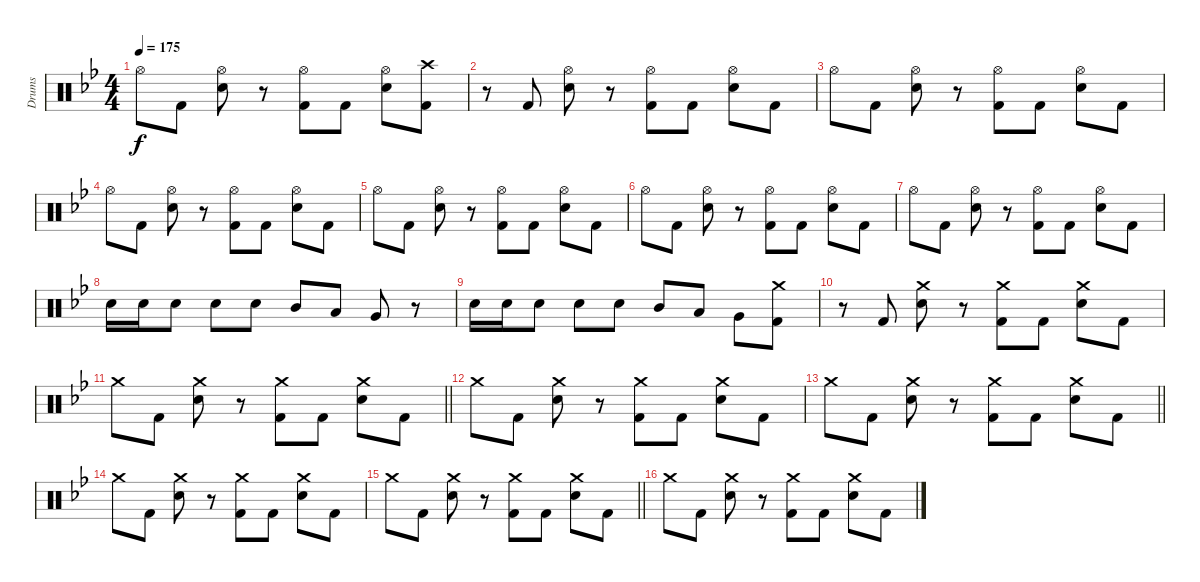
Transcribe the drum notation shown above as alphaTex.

\track ("Drums" "Drums") {instrument percussion}
\staff {score}
\articulation defaults
\ts (4 4)
\tempo 175
\clef neutral
\ks bb "Hi-Hat (open)".8{dy f} "Kick (hit) 2".8
("Hi-Hat (open)" "Electric Snare (hit)").8 r.8 ("Hi-Hat (open)" "Kick (hit) 2").8 "Kick (hit) 2".8 ("Hi-Hat (open)" "Electric Snare (hit)").8 ("Crash high (hit)" "Kick (hit) 2").8 |
r.8 "Kick (hit) 2".8 ("Hi-Hat (open)" "Electric Snare (hit)").8 r.8 ("Hi-Hat (open)" "Kick (hit) 2").8 "Kick (hit) 2".8 ("Hi-Hat (open)" "Electric Snare (hit)").8 "Kick (hit) 2".8 |
"Hi-Hat (open)".8 "Kick (hit) 2".8 ("Hi-Hat (open)" "Electric Snare (hit)").8 r.8 ("Hi-Hat (open)" "Kick (hit) 2").8 "Kick (hit) 2".8 ("Hi-Hat (open)" "Electric Snare (hit)").8 "Kick (hit) 2".8 |
"Hi-Hat (open)".8 "Kick (hit) 2".8 ("Hi-Hat (open)" "Electric Snare (hit)").8 r.8 ("Hi-Hat (open)" "Kick (hit) 2").8 "Kick (hit) 2".8 ("Hi-Hat (open)" "Electric Snare (hit)").8 "Kick (hit) 2".8 |
"Hi-Hat (open)".8 "Kick (hit) 2".8 ("Hi-Hat (open)" "Electric Snare (hit)").8 r.8 ("Hi-Hat (open)" "Kick (hit) 2").8 "Kick (hit) 2".8 ("Hi-Hat (open)" "Electric Snare (hit)").8 "Kick (hit) 2".8 |
"Hi-Hat (open)".8 "Kick (hit) 2".8 ("Hi-Hat (open)" "Electric Snare (hit)").8 r.8 ("Hi-Hat (open)" "Kick (hit) 2").8 "Kick (hit) 2".8 ("Hi-Hat (open)" "Electric Snare (hit)").8 "Kick (hit) 2".8 |
"Hi-Hat (open)".8 "Kick (hit) 2".8 ("Hi-Hat (open)" "Electric Snare (hit)").8 r.8 ("Hi-Hat (open)" "Kick (hit) 2").8 "Kick (hit) 2".8 ("Hi-Hat (open)" "Electric Snare (hit)").8 "Kick (hit) 2".8 |
"Electric Snare (hit)".16 "Electric Snare (hit)".16 "Electric Snare (hit)".8 "Electric Snare (hit)".8 "Electric Snare (hit)".8 "Mid Tom (hit)".8 "Low Tom (hit)".8 "Very Low Tom (hit)".8 r.8 |
"Electric Snare (hit)".16 "Electric Snare (hit)".16 "Electric Snare (hit)".8 "Electric Snare (hit)".8 "Electric Snare (hit)".8 "Mid Tom (hit)".8 "Low Tom (hit)".8 "Very Low Tom (hit)".8 ("Crash medium (hit)" "Kick (hit) 2").8 |
r.8 "Kick (hit) 2".8 ("Crash medium (hit)" "Electric Snare (hit)").8 r.8 ("Crash medium (hit)" "Kick (hit) 2").8 "Kick (hit) 2".8 ("Crash medium (hit)" "Electric Snare (hit)").8 "Kick (hit) 2".8 |
\barLineRight lightlight "Crash medium (hit)".8 "Kick (hit) 2".8
("Crash medium (hit)" "Electric Snare (hit)").8 r.8 ("Crash medium (hit)" "Kick (hit) 2").8 "Kick (hit) 2".8 ("Crash medium (hit)" "Electric Snare (hit)").8 "Kick (hit) 2".8 |
"Crash medium (hit)".8 "Kick (hit) 2".8 ("Crash medium (hit)" "Electric Snare (hit)").8 r.8 ("Crash medium (hit)" "Kick (hit) 2").8 "Kick (hit) 2".8 ("Crash medium (hit)" "Electric Snare (hit)").8 "Kick (hit) 2".8 |
\barLineRight lightlight "Crash medium (hit)".8 "Kick (hit) 2".8
("Crash medium (hit)" "Electric Snare (hit)").8 r.8 ("Crash medium (hit)" "Kick (hit) 2").8 "Kick (hit) 2".8 ("Crash medium (hit)" "Electric Snare (hit)").8 "Kick (hit) 2".8 |
"Crash medium (hit)".8 "Kick (hit) 2".8 ("Crash medium (hit)" "Electric Snare (hit)").8 r.8 ("Crash medium (hit)" "Kick (hit) 2").8 "Kick (hit) 2".8 ("Crash medium (hit)" "Electric Snare (hit)").8 "Kick (hit) 2".8 |
\barLineRight lightlight "Crash medium (hit)".8 "Kick (hit) 2".8
("Crash medium (hit)" "Electric Snare (hit)").8 r.8 ("Crash medium (hit)" "Kick (hit) 2").8 "Kick (hit) 2".8 ("Crash medium (hit)" "Electric Snare (hit)").8 "Kick (hit) 2".8 |
"Crash medium (hit)".8 "Kick (hit) 2".8 ("Crash medium (hit)" "Electric Snare (hit)").8 r.8 ("Crash medium (hit)" "Kick (hit) 2").8 "Kick (hit) 2".8 ("Crash medium (hit)" "Electric Snare (hit)").8 "Kick (hit) 2".8
